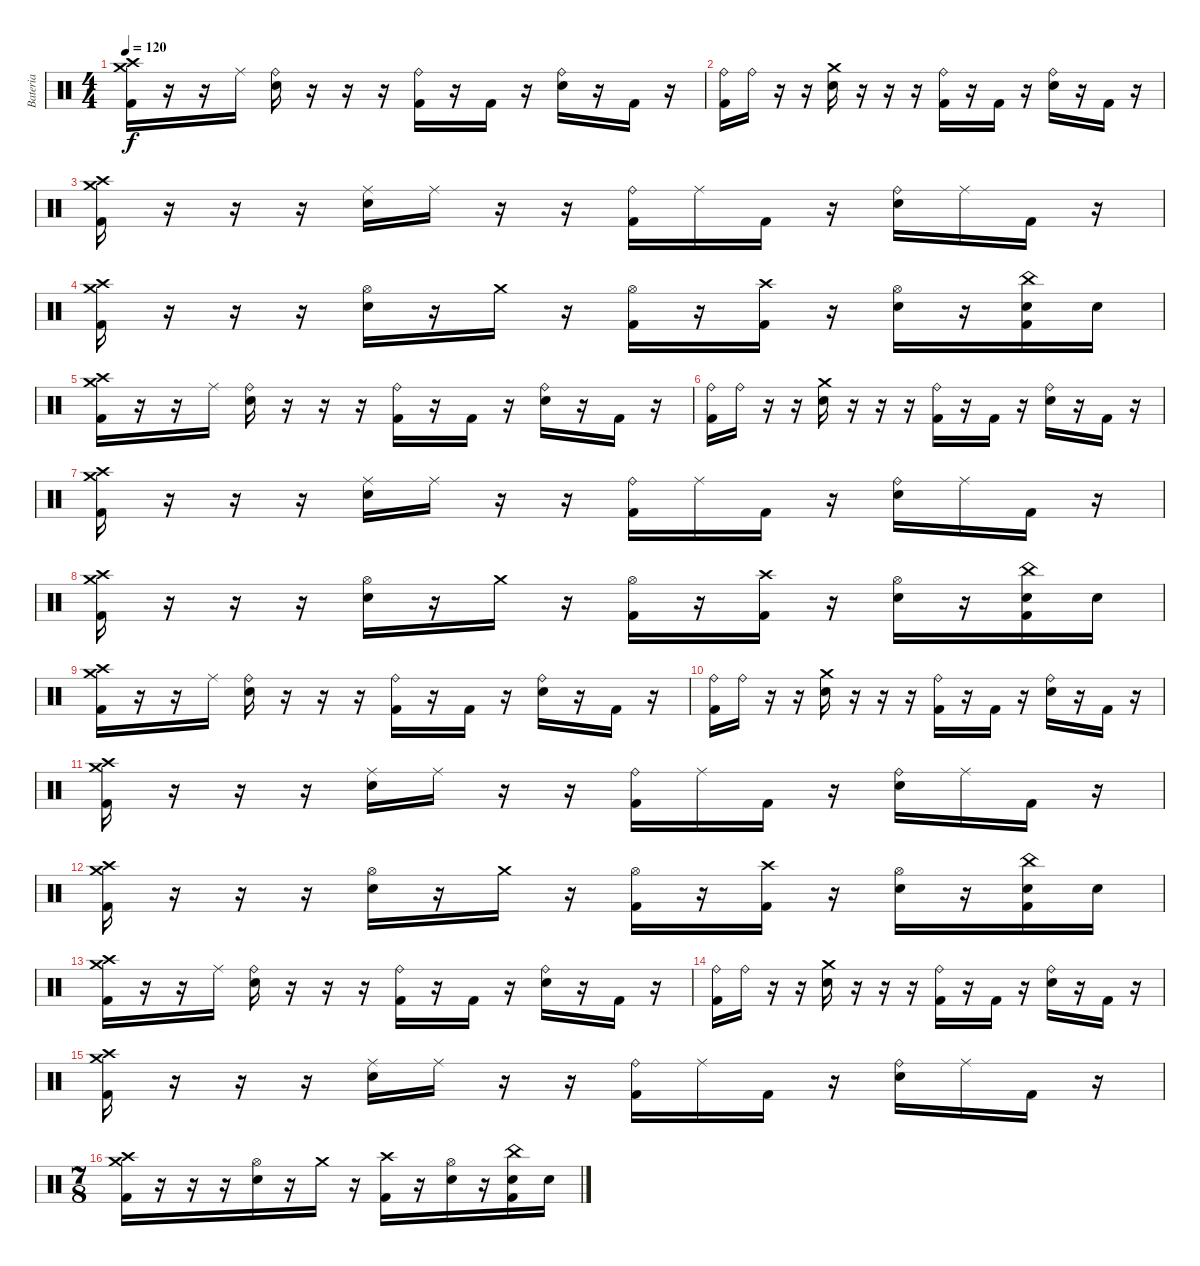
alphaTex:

\track ("Bateria" "Bateria") {instrument percussion}
\staff {score}
\articulation defaults
\ts (4 4)
\tempo 120
\clef neutral
\ks c
("Crash medium (hit)" "Crash high (hit)" "Kick (hit) 2").16{dy f} r.16 r.16 "Ride (middle)".16 ("Ride (bell)" "Electric Snare (hit)").16 r.16 r.16 r.16 ("Ride (bell)" "Kick (hit) 2").16 r.16 "Kick (hit) 2".16 r.16 ("Ride (bell)" "Electric Snare (hit)").16 r.16 "Kick (hit) 2".16 r.16 |
("Ride (bell)" "Kick (hit) 2").16 "Ride (bell)".16 r.16 r.16 ("Crash medium (hit)" "Electric Snare (hit)").16 r.16 r.16 r.16 ("Ride (bell)" "Kick (hit) 2").16 r.16 "Kick (hit) 2".16 r.16 ("Ride (bell)" "Electric Snare (hit)").16 r.16 "Kick (hit) 2".16 r.16 |
("Crash medium (hit)" "Crash high (hit)" "Kick (hit) 2").16 r.16 r.16 r.16 ("Ride (middle)" "Electric Snare (hit)").16 "Ride (middle)".16 r.16 r.16 ("Ride (bell)" "Kick (hit) 2").16 "Ride (middle)".16 "Kick (hit) 2".16 r.16 ("Ride (bell)" "Electric Snare (hit)").16 "Ride (middle)".16 "Kick (hit) 2".16 r.16 |
("Crash medium (hit)" "Crash high (hit)" "Kick (hit) 2").16 r.16 r.16 r.16 ("Hi-Hat (open)" "Electric Snare (hit)").16 r.16 "Crash medium (hit)".16 r.16 ("Hi-Hat (open)" "Kick (hit) 2").16 r.16 ("Crash high (hit)" "Kick (hit) 2").16 r.16 ("Hi-Hat (open)" "Electric Snare (hit)").16 r.16 ("China (hit)" "Electric Snare (hit)" "Kick (hit) 2").16 "Electric Snare (hit)".16 |
("Crash medium (hit)" "Crash high (hit)" "Kick (hit) 2").16 r.16 r.16 "Ride (middle)".16 ("Ride (bell)" "Electric Snare (hit)").16 r.16 r.16 r.16 ("Ride (bell)" "Kick (hit) 2").16 r.16 "Kick (hit) 2".16 r.16 ("Ride (bell)" "Electric Snare (hit)").16 r.16 "Kick (hit) 2".16 r.16 |
("Ride (bell)" "Kick (hit) 2").16 "Ride (bell)".16 r.16 r.16 ("Crash medium (hit)" "Electric Snare (hit)").16 r.16 r.16 r.16 ("Ride (bell)" "Kick (hit) 2").16 r.16 "Kick (hit) 2".16 r.16 ("Ride (bell)" "Electric Snare (hit)").16 r.16 "Kick (hit) 2".16 r.16 |
("Crash medium (hit)" "Crash high (hit)" "Kick (hit) 2").16 r.16 r.16 r.16 ("Ride (middle)" "Electric Snare (hit)").16 "Ride (middle)".16 r.16 r.16 ("Ride (bell)" "Kick (hit) 2").16 "Ride (middle)".16 "Kick (hit) 2".16 r.16 ("Ride (bell)" "Electric Snare (hit)").16 "Ride (middle)".16 "Kick (hit) 2".16 r.16 |
("Crash medium (hit)" "Crash high (hit)" "Kick (hit) 2").16 r.16 r.16 r.16 ("Hi-Hat (open)" "Electric Snare (hit)").16 r.16 "Crash medium (hit)".16 r.16 ("Hi-Hat (open)" "Kick (hit) 2").16 r.16 ("Crash high (hit)" "Kick (hit) 2").16 r.16 ("Hi-Hat (open)" "Electric Snare (hit)").16 r.16 ("China (hit)" "Electric Snare (hit)" "Kick (hit) 2").16 "Electric Snare (hit)".16 |
("Crash medium (hit)" "Crash high (hit)" "Kick (hit) 2").16 r.16 r.16 "Ride (middle)".16 ("Ride (bell)" "Electric Snare (hit)").16 r.16 r.16 r.16 ("Ride (bell)" "Kick (hit) 2").16 r.16 "Kick (hit) 2".16 r.16 ("Ride (bell)" "Electric Snare (hit)").16 r.16 "Kick (hit) 2".16 r.16 |
("Ride (bell)" "Kick (hit) 2").16 "Ride (bell)".16 r.16 r.16 ("Crash medium (hit)" "Electric Snare (hit)").16 r.16 r.16 r.16 ("Ride (bell)" "Kick (hit) 2").16 r.16 "Kick (hit) 2".16 r.16 ("Ride (bell)" "Electric Snare (hit)").16 r.16 "Kick (hit) 2".16 r.16 |
("Crash medium (hit)" "Crash high (hit)" "Kick (hit) 2").16 r.16 r.16 r.16 ("Ride (middle)" "Electric Snare (hit)").16 "Ride (middle)".16 r.16 r.16 ("Ride (bell)" "Kick (hit) 2").16 "Ride (middle)".16 "Kick (hit) 2".16 r.16 ("Ride (bell)" "Electric Snare (hit)").16 "Ride (middle)".16 "Kick (hit) 2".16 r.16 |
("Crash medium (hit)" "Crash high (hit)" "Kick (hit) 2").16 r.16 r.16 r.16 ("Hi-Hat (open)" "Electric Snare (hit)").16 r.16 "Crash medium (hit)".16 r.16 ("Hi-Hat (open)" "Kick (hit) 2").16 r.16 ("Crash high (hit)" "Kick (hit) 2").16 r.16 ("Hi-Hat (open)" "Electric Snare (hit)").16 r.16 ("China (hit)" "Electric Snare (hit)" "Kick (hit) 2").16 "Electric Snare (hit)".16 |
("Crash medium (hit)" "Crash high (hit)" "Kick (hit) 2").16 r.16 r.16 "Ride (middle)".16 ("Ride (bell)" "Electric Snare (hit)").16 r.16 r.16 r.16 ("Ride (bell)" "Kick (hit) 2").16 r.16 "Kick (hit) 2".16 r.16 ("Ride (bell)" "Electric Snare (hit)").16 r.16 "Kick (hit) 2".16 r.16 |
("Ride (bell)" "Kick (hit) 2").16 "Ride (bell)".16 r.16 r.16 ("Crash medium (hit)" "Electric Snare (hit)").16 r.16 r.16 r.16 ("Ride (bell)" "Kick (hit) 2").16 r.16 "Kick (hit) 2".16 r.16 ("Ride (bell)" "Electric Snare (hit)").16 r.16 "Kick (hit) 2".16 r.16 |
("Crash medium (hit)" "Crash high (hit)" "Kick (hit) 2").16 r.16 r.16 r.16 ("Ride (middle)" "Electric Snare (hit)").16 "Ride (middle)".16 r.16 r.16 ("Ride (bell)" "Kick (hit) 2").16 "Ride (middle)".16 "Kick (hit) 2".16 r.16 ("Ride (bell)" "Electric Snare (hit)").16 "Ride (middle)".16 "Kick (hit) 2".16 r.16 |
\ts (7 8)
("Crash medium (hit)" "Crash high (hit)" "Kick (hit) 2").16 r.16 r.16 r.16 ("Hi-Hat (open)" "Electric Snare (hit)").16 r.16 "Crash medium (hit)".16 r.16 ("Crash high (hit)" "Kick (hit) 2").16 r.16 ("Hi-Hat (open)" "Electric Snare (hit)").16 r.16 ("China (hit)" "Electric Snare (hit)" "Kick (hit) 2").16 "Electric Snare (hit)".16
